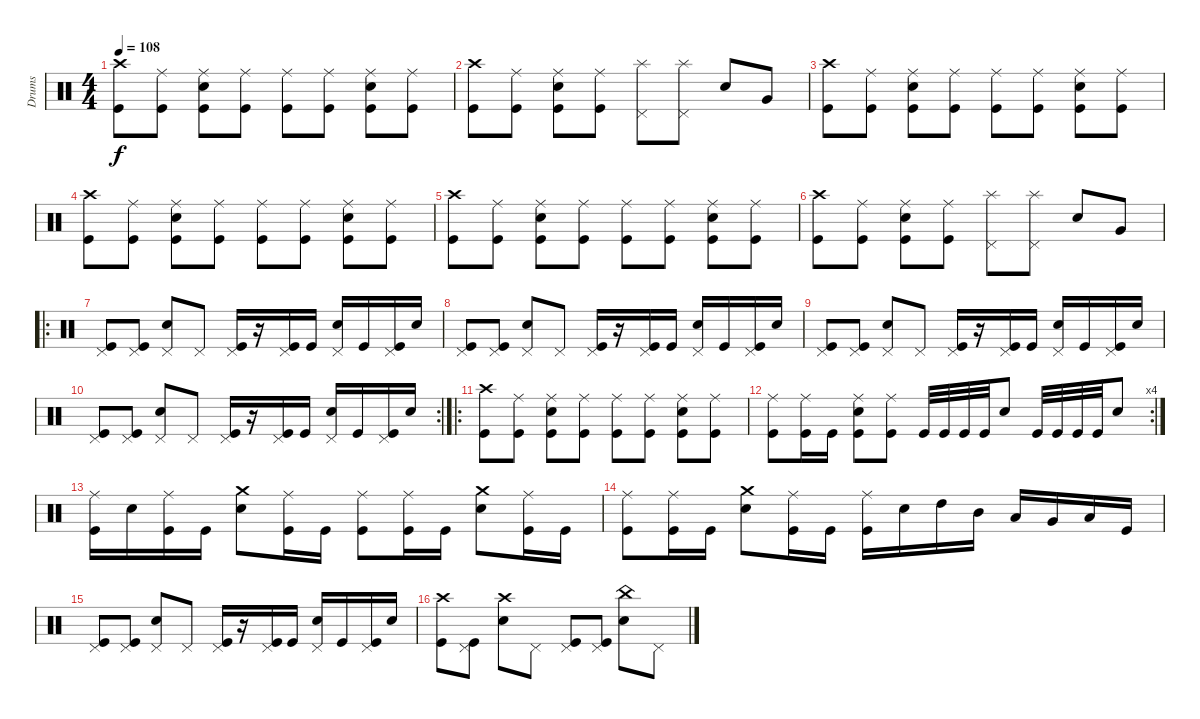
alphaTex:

\track ("Drums" "Drums") {instrument percussion}
\staff {score}
\articulation defaults
\ts (4 4)
\tempo 108
\clef neutral
\ks c
("Crash high (hit)" "Kick (hit)").8{dy f} ("Ride (middle)" "Kick (hit)").8 ("Ride (middle)" "Electric Snare (hit)" "Kick (hit)").8 ("Ride (middle)" "Kick (hit)").8 ("Ride (middle)" "Kick (hit)").8 ("Ride (middle)" "Kick (hit)").8 ("Ride (middle)" "Electric Snare (hit)" "Kick (hit)").8 ("Ride (middle)" "Kick (hit)").8 |
("Crash high (hit)" "Kick (hit)").8 ("Ride (middle)" "Kick (hit)").8 ("Ride (middle)" "Electric Snare (hit)" "Kick (hit)").8 ("Ride (middle)" "Kick (hit)").8 ("Pedal Hi-Hat (hit)" "Splash (hit)").8 ("Splash (hit)" "Pedal Hi-Hat (hit)").8 "Electric Snare (hit)".8 "Very Low Tom (hit)".8 |
("Crash high (hit)" "Kick (hit)").8 ("Ride (middle)" "Kick (hit)").8 ("Ride (middle)" "Electric Snare (hit)" "Kick (hit)").8 ("Ride (middle)" "Kick (hit)").8 ("Ride (middle)" "Kick (hit)").8 ("Ride (middle)" "Kick (hit)").8 ("Ride (middle)" "Electric Snare (hit)" "Kick (hit)").8 ("Ride (middle)" "Kick (hit)").8 |
("Crash high (hit)" "Kick (hit)").8 ("Ride (middle)" "Kick (hit)").8 ("Ride (middle)" "Electric Snare (hit)" "Kick (hit)").8 ("Ride (middle)" "Kick (hit)").8 ("Ride (middle)" "Kick (hit)").8 ("Ride (middle)" "Kick (hit)").8 ("Ride (middle)" "Electric Snare (hit)" "Kick (hit)").8 ("Ride (middle)" "Kick (hit)").8 |
("Crash high (hit)" "Kick (hit)").8 ("Ride (middle)" "Kick (hit)").8 ("Ride (middle)" "Electric Snare (hit)" "Kick (hit)").8 ("Ride (middle)" "Kick (hit)").8 ("Ride (middle)" "Kick (hit)").8 ("Ride (middle)" "Kick (hit)").8 ("Ride (middle)" "Electric Snare (hit)" "Kick (hit)").8 ("Ride (middle)" "Kick (hit)").8 |
("Crash high (hit)" "Kick (hit)").8 ("Ride (middle)" "Kick (hit)").8 ("Ride (middle)" "Electric Snare (hit)" "Kick (hit)").8 ("Ride (middle)" "Kick (hit)").8 ("Pedal Hi-Hat (hit)" "Splash (hit)").8 ("Splash (hit)" "Pedal Hi-Hat (hit)").8 "Electric Snare (hit)".8 "Very Low Tom (hit)".8 |
\ro
("Pedal Hi-Hat (hit)" "Kick (hit)").8 ("Pedal Hi-Hat (hit)" "Kick (hit)").8 ("Pedal Hi-Hat (hit)" "Electric Snare (hit)").8 "Pedal Hi-Hat (hit)".8 ("Pedal Hi-Hat (hit)" "Kick (hit)").16 r.16 ("Pedal Hi-Hat (hit)" "Kick (hit)").16 "Kick (hit)".16 ("Pedal Hi-Hat (hit)" "Electric Snare (hit)").16 "Kick (hit)".16 ("Pedal Hi-Hat (hit)" "Kick (hit)").16 "Electric Snare (hit)".16 |
("Pedal Hi-Hat (hit)" "Kick (hit)").8 ("Pedal Hi-Hat (hit)" "Kick (hit)").8 ("Pedal Hi-Hat (hit)" "Electric Snare (hit)").8 "Pedal Hi-Hat (hit)".8 ("Pedal Hi-Hat (hit)" "Kick (hit)").16 r.16 ("Pedal Hi-Hat (hit)" "Kick (hit)").16 "Kick (hit)".16 ("Pedal Hi-Hat (hit)" "Electric Snare (hit)").16 "Kick (hit)".16 ("Pedal Hi-Hat (hit)" "Kick (hit)").16 "Electric Snare (hit)".16 |
("Pedal Hi-Hat (hit)" "Kick (hit)").8 ("Pedal Hi-Hat (hit)" "Kick (hit)").8 ("Pedal Hi-Hat (hit)" "Electric Snare (hit)").8 "Pedal Hi-Hat (hit)".8 ("Pedal Hi-Hat (hit)" "Kick (hit)").16 r.16 ("Pedal Hi-Hat (hit)" "Kick (hit)").16 "Kick (hit)".16 ("Pedal Hi-Hat (hit)" "Electric Snare (hit)").16 "Kick (hit)".16 ("Pedal Hi-Hat (hit)" "Kick (hit)").16 "Electric Snare (hit)".16 |
\rc 2
("Pedal Hi-Hat (hit)" "Kick (hit)").8 ("Pedal Hi-Hat (hit)" "Kick (hit)").8 ("Pedal Hi-Hat (hit)" "Electric Snare (hit)").8 "Pedal Hi-Hat (hit)".8 ("Pedal Hi-Hat (hit)" "Kick (hit)").16 r.16 ("Pedal Hi-Hat (hit)" "Kick (hit)").16 "Kick (hit)".16 ("Pedal Hi-Hat (hit)" "Electric Snare (hit)").16 "Kick (hit)".16 ("Pedal Hi-Hat (hit)" "Kick (hit)").16 "Electric Snare (hit)".16 |
\ro
("Crash high (hit)" "Kick (hit)").8 ("Ride (middle)" "Kick (hit)").8 ("Ride (middle)" "Electric Snare (hit)" "Kick (hit)").8 ("Ride (middle)" "Kick (hit)").8 ("Ride (middle)" "Kick (hit)").8 ("Ride (middle)" "Kick (hit)").8 ("Ride (middle)" "Electric Snare (hit)" "Kick (hit)").8 ("Ride (middle)" "Kick (hit)").8 |
\rc 4
("Ride (middle)" "Kick (hit)").8 ("Ride (middle)" "Kick (hit)").16 "Kick (hit)".16 ("Ride (middle)" "Electric Snare (hit)" "Kick (hit)").8 ("Ride (middle)" "Kick (hit)").8 "Kick (hit)".32 "Kick (hit)".32 "Kick (hit)".32 "Kick (hit)".32 "Electric Snare (hit)".8 "Kick (hit)".32 "Kick (hit)".32 "Kick (hit)".32 "Kick (hit)".32 "Electric Snare (hit)".8 |
("Ride (middle)" "Kick (hit)").16 "Electric Snare (hit)".16 ("Ride (middle)" "Kick (hit)").16 "Kick (hit)".16 ("Crash medium (hit)" "Electric Snare (hit)").8 ("Ride (middle)" "Kick (hit)").16 "Kick (hit)".16 ("Ride (middle)" "Kick (hit)").8 ("Ride (middle)" "Kick (hit)").16 "Kick (hit)".16 ("Crash medium (hit)" "Electric Snare (hit)").8 ("Ride (middle)" "Kick (hit)").16 "Kick (hit)".16 |
("Ride (middle)" "Kick (hit)").8 ("Ride (middle)" "Kick (hit)").16 "Kick (hit)".16 ("Crash medium (hit)" "Electric Snare (hit)").8 ("Ride (middle)" "Kick (hit)").16 "Kick (hit)".16 ("Ride (middle)" "Kick (hit)").16 "Electric Snare (hit)".16 "High Tom (hit)".16 "Mid Tom (hit)".16 "Low Tom (hit)".16 "Very Low Tom (hit)".16 "Low Floor Tom (hit)".16 "Kick (hit)".16 |
("Pedal Hi-Hat (hit)" "Kick (hit)").8 ("Pedal Hi-Hat (hit)" "Kick (hit)").8 ("Pedal Hi-Hat (hit)" "Electric Snare (hit)").8 "Pedal Hi-Hat (hit)".8 ("Pedal Hi-Hat (hit)" "Kick (hit)").16 r.16 ("Pedal Hi-Hat (hit)" "Kick (hit)").16 "Kick (hit)".16 ("Pedal Hi-Hat (hit)" "Electric Snare (hit)").16 "Kick (hit)".16 ("Pedal Hi-Hat (hit)" "Kick (hit)").16 "Electric Snare (hit)".16 |
("Crash high (hit)" "Kick (hit)").8 ("Pedal Hi-Hat (hit)" "Kick (hit)").8 ("Crash high (hit)" "Electric Snare (hit)").8 "Pedal Hi-Hat (hit)".8 ("Pedal Hi-Hat (hit)" "Kick (hit)").8 ("Pedal Hi-Hat (hit)" "Kick (hit)").8 ("China (hit)" "Electric Snare (hit)").8 "Pedal Hi-Hat (hit)".8
